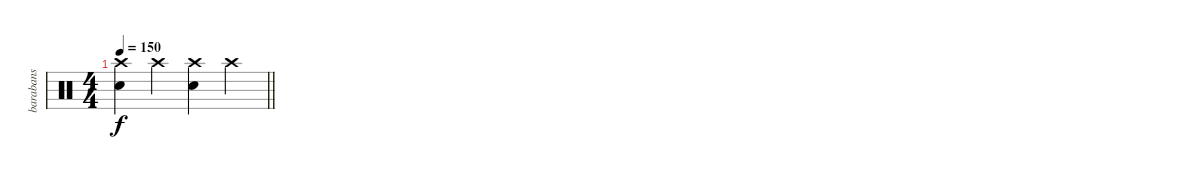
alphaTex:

\track ("barabans" "barabans") {instrument percussion}
\staff {score}
\articulation defaults
\ts (4 4)
\tempo 150
\clef neutral
\barLineRight lightlight
\ks c
("Crash high (hit)" "Snare (hit) 2").4{dy f} "Crash high (hit)".4 ("Crash high (hit)" "Snare (hit) 2").4 "Crash high (hit)".4
